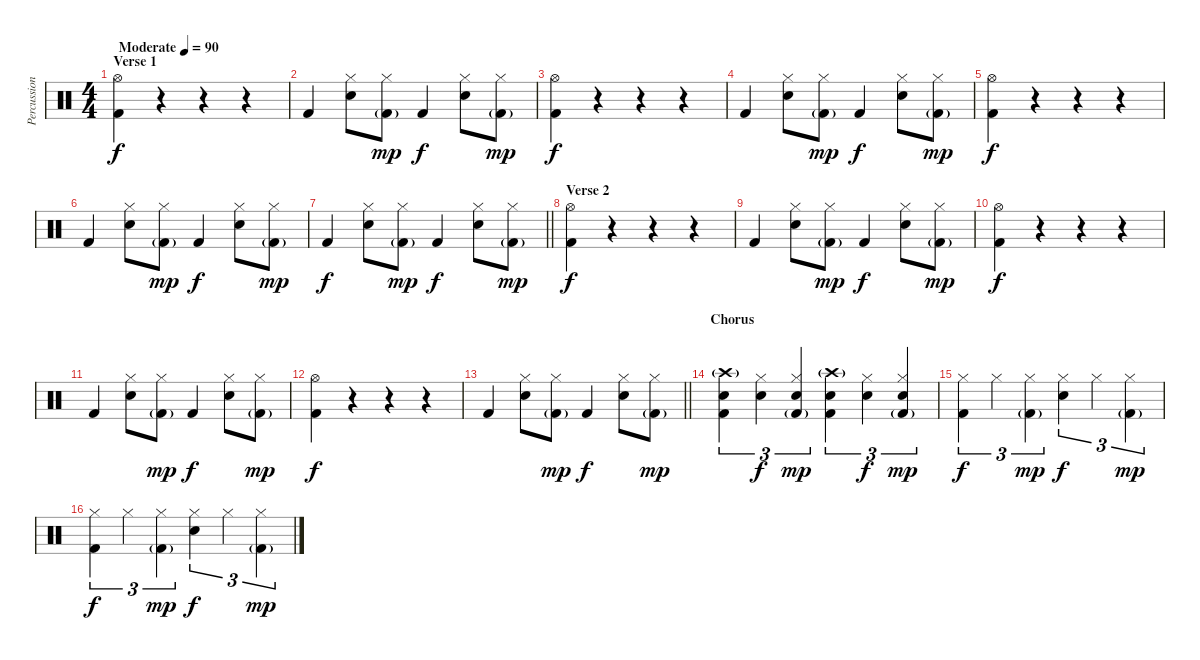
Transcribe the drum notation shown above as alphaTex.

\track ("Percussion" "Percussion") {instrument percussion}
\staff {score}
\articulation defaults
\ts (4 4)
\section ("" "Verse 1")
\tempo (90 "Moderate")
\clef neutral
\ks c
("Hi-Hat (open)" "Kick (hit) 2").4{dy f} r.4 r.4 r.4 |
"Kick (hit) 2".4 ("Hi-Hat (closed)" "Snare (hit) 2").8 ("Hi-Hat (closed)" "Kick (hit) 2"{g}).8{dy mp} "Kick (hit) 2".4{dy f} ("Hi-Hat (closed)" "Snare (hit) 2").8 ("Hi-Hat (closed)" "Kick (hit) 2"{g}).8{dy mp} |
("Hi-Hat (open)" "Kick (hit) 2").4{dy f} r.4 r.4 r.4 |
"Kick (hit) 2".4 ("Hi-Hat (closed)" "Snare (hit) 2").8 ("Hi-Hat (closed)" "Kick (hit) 2"{g}).8{dy mp} "Kick (hit) 2".4{dy f} ("Hi-Hat (closed)" "Snare (hit) 2").8 ("Hi-Hat (closed)" "Kick (hit) 2"{g}).8{dy mp} |
("Hi-Hat (open)" "Kick (hit) 2").4{dy f} r.4 r.4 r.4 |
"Kick (hit) 2".4 ("Hi-Hat (closed)" "Snare (hit) 2").8 ("Hi-Hat (closed)" "Kick (hit) 2"{g}).8{dy mp} "Kick (hit) 2".4{dy f} ("Hi-Hat (closed)" "Snare (hit) 2").8 ("Hi-Hat (closed)" "Kick (hit) 2"{g}).8{dy mp} |
\barLineRight lightlight "Kick (hit) 2".4{dy f}
("Hi-Hat (closed)" "Snare (hit) 2").8 ("Hi-Hat (closed)" "Kick (hit) 2"{g}).8{dy mp} "Kick (hit) 2".4{dy f} ("Hi-Hat (closed)" "Snare (hit) 2").8 ("Hi-Hat (closed)" "Kick (hit) 2"{g}).8{dy mp} |
\section ("" "Verse 2")
("Hi-Hat (open)" "Kick (hit) 2").4{dy f} r.4 r.4 r.4 |
"Kick (hit) 2".4 ("Hi-Hat (closed)" "Snare (hit) 2").8 ("Hi-Hat (closed)" "Kick (hit) 2"{g}).8{dy mp} "Kick (hit) 2".4{dy f} ("Hi-Hat (closed)" "Snare (hit) 2").8 ("Hi-Hat (closed)" "Kick (hit) 2"{g}).8{dy mp} |
("Hi-Hat (open)" "Kick (hit) 2").4{dy f} r.4 r.4 r.4 |
"Kick (hit) 2".4 ("Hi-Hat (closed)" "Snare (hit) 2").8 ("Hi-Hat (closed)" "Kick (hit) 2"{g}).8{dy mp} "Kick (hit) 2".4{dy f} ("Hi-Hat (closed)" "Snare (hit) 2").8 ("Hi-Hat (closed)" "Kick (hit) 2"{g}).8{dy mp} |
("Hi-Hat (open)" "Kick (hit) 2").4{dy f} r.4 r.4 r.4 |
\barLineRight lightlight "Kick (hit) 2".4
("Hi-Hat (closed)" "Snare (hit) 2").8 ("Hi-Hat (closed)" "Kick (hit) 2"{g}).8{dy mp} "Kick (hit) 2".4{dy f} ("Hi-Hat (closed)" "Snare (hit) 2").8 ("Hi-Hat (closed)" "Kick (hit) 2"{g}).8{dy mp} |
\section ("" "Chorus")
("Crash high (hit)"{g} "Snare (hit) 2" "Kick (hit) 2").4{tu (3 2)} ("Hi-Hat (closed)" "Snare (hit) 2").4{tu (3 2) dy f} ("Hi-Hat (closed)" "Snare (hit) 2" "Kick (hit) 2"{g}).4{tu (3 2) dy mp} ("Crash high (hit)"{g} "Snare (hit) 2" "Kick (hit) 2").4{tu (3 2)} ("Hi-Hat (closed)" "Snare (hit) 2").4{tu (3 2) dy f} ("Hi-Hat (closed)" "Snare (hit) 2" "Kick (hit) 2"{g}).4{tu (3 2) dy mp} |
("Hi-Hat (closed)" "Kick (hit) 2").4{tu (3 2) dy f} "Hi-Hat (closed)".4{tu (3 2)} ("Hi-Hat (closed)" "Kick (hit) 2"{g}).4{tu (3 2) dy mp} ("Hi-Hat (closed)" "Snare (hit) 2").4{tu (3 2) dy f} "Hi-Hat (closed)".4{tu (3 2)} ("Hi-Hat (closed)" "Kick (hit) 2"{g}).4{tu (3 2) dy mp} |
("Hi-Hat (closed)" "Kick (hit) 2").4{tu (3 2) dy f} "Hi-Hat (closed)".4{tu (3 2)} ("Hi-Hat (closed)" "Kick (hit) 2"{g}).4{tu (3 2) dy mp} ("Hi-Hat (closed)" "Snare (hit) 2").4{tu (3 2) dy f} "Hi-Hat (closed)".4{tu (3 2)} ("Hi-Hat (closed)" "Kick (hit) 2"{g}).4{tu (3 2) dy mp}
